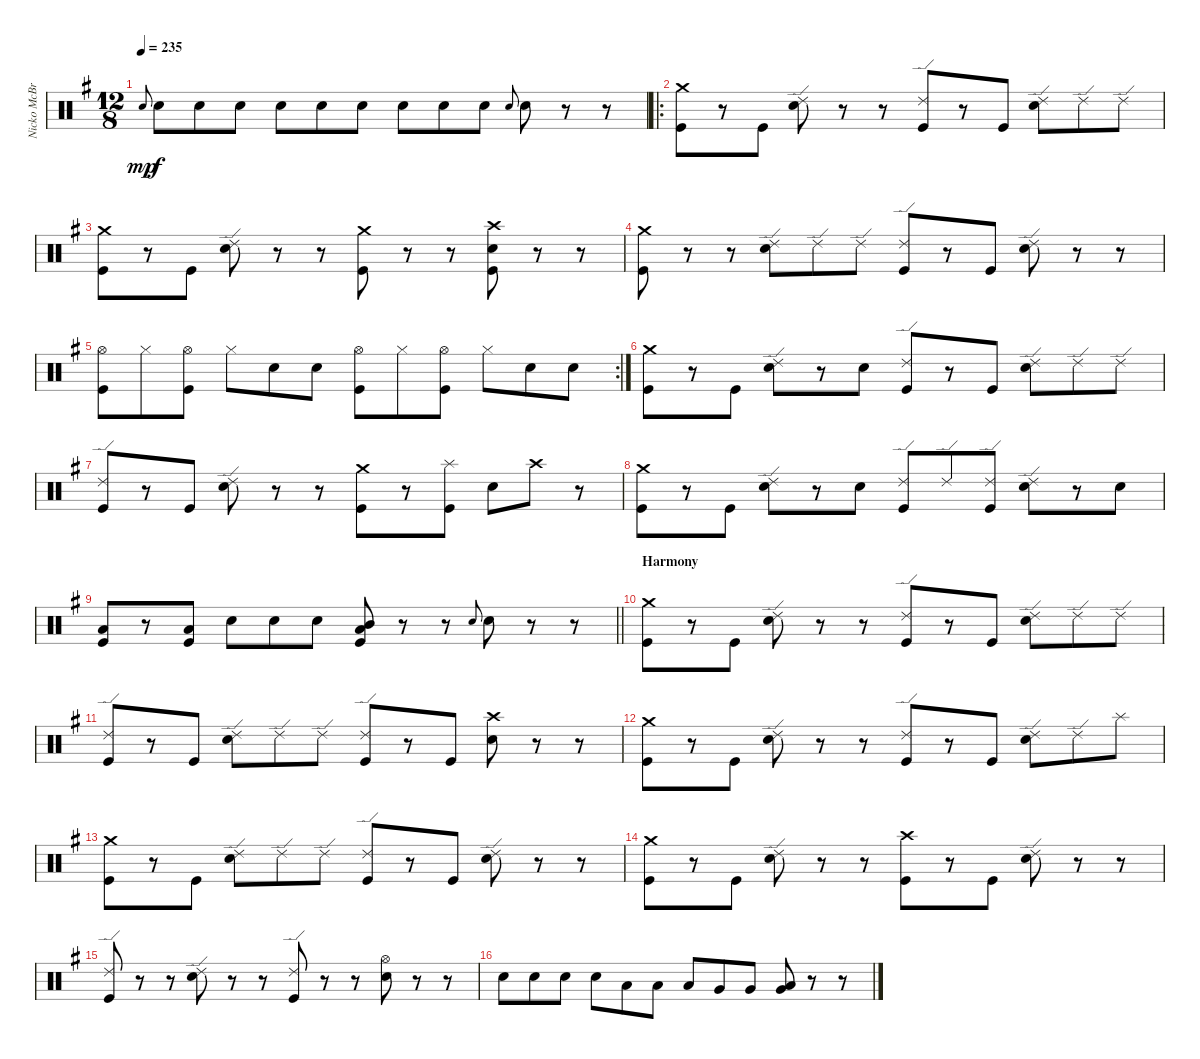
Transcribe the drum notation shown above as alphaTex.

\track ("Nicko McBrain (Drums)" "Nicko McBr") {instrument percussion}
\staff {score}
\articulation defaults
\ts (12 8)
\tempo 235
\clef neutral
\ks eminor "Snare (hit) 2".8{gr onbeat dy mp} "Snare (hit) 2".8{dy f} "Snare (hit) 2".8 "Snare (hit) 2".8 "Snare (hit) 2".8 "Snare (hit) 2".8 "Snare (hit) 2".8 "Snare (hit) 2".8 "Snare (hit) 2".8 "Snare (hit) 2".8 "Snare (hit) 2".8{gr onbeat} "Snare (hit) 2".8
r.8 r.8 |
\ro
("Crash medium (hit)" "Kick (hit)").8 r.8 "Kick (hit)".8 ("Ride (edge) 2" "Snare (hit) 2").8 r.8 r.8 ("Ride (edge) 2" "Kick (hit)").8 r.8 "Kick (hit)".8 ("Ride (edge) 2" "Snare (hit) 2").8 "Ride (edge) 2".8 "Ride (edge) 2".8 |
("Crash medium (hit)" "Kick (hit)").8 r.8 "Kick (hit)".8 ("Ride (edge) 2" "Snare (hit) 2").8 r.8 r.8 ("Crash medium (hit)" "Kick (hit)").8 r.8 r.8 ("Crash high (hit)" "Snare (hit) 2" "Kick (hit)").8 r.8 r.8 |
("Crash medium (hit)" "Kick (hit)").8 r.8 r.8 ("Ride (edge) 2" "Snare (hit) 2").8 "Ride (edge) 2".8 "Ride (edge) 2".8 ("Ride (edge) 2" "Kick (hit)").8 r.8 "Kick (hit)".8 ("Ride (edge) 2" "Snare (hit) 2").8 r.8 r.8 |
\rc 2
("Hi-Hat (open)" "Kick (hit)").8 "Hi-Hat (closed)".8 ("Hi-Hat (open)" "Kick (hit)").8 "Hi-Hat (closed)".8 "Snare (hit) 2".8 "Snare (hit) 2".8 ("Hi-Hat (open)" "Kick (hit)").8 "Hi-Hat (closed)".8 ("Hi-Hat (open)" "Kick (hit)").8 "Hi-Hat (closed)".8 "Snare (hit) 2".8 "Snare (hit) 2".8 |
("Crash medium (hit)" "Kick (hit)").8 r.8 "Kick (hit)".8 ("Ride (edge) 2" "Snare (hit) 2").8 r.8 "Snare (hit) 2".8 ("Ride (edge) 2" "Kick (hit)").8 r.8 "Kick (hit)".8 ("Ride (edge) 2" "Snare (hit) 2").8 "Ride (edge) 2".8 "Ride (edge) 2".8 |
("Ride (edge) 2" "Kick (hit)").8 r.8 "Kick (hit)".8 ("Ride (edge) 2" "Snare (hit) 2").8 r.8 r.8 ("Crash medium (hit)" "Kick (hit)").8 r.8 ("Splash (hit)" "Kick (hit)").8 "Snare (hit) 2".8 "Crash high (hit)".8 r.8 |
("Crash medium (hit)" "Kick (hit)").8 r.8 "Kick (hit)".8 ("Ride (edge) 2" "Snare (hit) 2").8 r.8 "Snare (hit) 2".8 ("Ride (edge) 2" "Kick (hit)").8 "Ride (edge) 2".8 ("Ride (edge) 2" "Kick (hit)").8 ("Ride (edge) 2" "Snare (hit) 2").8 r.8 "Snare (hit) 2".8 |
\barLineRight lightlight
("Low Tom (hit)" "Kick (hit)").8 r.8 ("Low Tom (hit)" "Kick (hit)").8 "Snare (hit) 2".8 "Snare (hit) 2".8 "Snare (hit) 2".8 ("Mid Tom (hit)" "Low Tom (hit)" "Kick (hit)").8 r.8 r.8 "Snare (hit) 2".8{gr onbeat} "Snare (hit) 2".8 r.8 r.8 |
\section ("" "Harmony")
("Crash medium (hit)" "Kick (hit)").8 r.8 "Kick (hit)".8 ("Ride (edge) 2" "Snare (hit) 2").8 r.8 r.8 ("Ride (edge) 2" "Kick (hit)").8 r.8 "Kick (hit)".8 ("Ride (edge) 2" "Snare (hit) 2").8 "Ride (edge) 2".8 "Ride (edge) 2".8 |
("Ride (edge) 2" "Kick (hit)").8 r.8 "Kick (hit)".8 ("Ride (edge) 2" "Snare (hit) 2").8 "Ride (edge) 2".8 "Ride (edge) 2".8 ("Ride (edge) 2" "Kick (hit)").8 r.8 "Kick (hit)".8 ("Crash high (hit)" "Snare (hit) 2").8 r.8 r.8 |
("Crash medium (hit)" "Kick (hit)").8 r.8 "Kick (hit)".8 ("Ride (edge) 2" "Snare (hit) 2").8 r.8 r.8 ("Ride (edge) 2" "Kick (hit)").8 r.8 "Kick (hit)".8 ("Ride (edge) 2" "Snare (hit) 2").8 "Ride (edge) 2".8 "Splash (hit)".8 |
("Crash medium (hit)" "Kick (hit)").8 r.8 "Kick (hit)".8 ("Ride (edge) 2" "Snare (hit) 2").8 "Ride (edge) 2".8 "Ride (edge) 2".8 ("Ride (edge) 2" "Kick (hit)").8 r.8 "Kick (hit)".8 ("Ride (edge) 2" "Snare (hit) 2").8 r.8 r.8 |
("Crash medium (hit)" "Kick (hit)").8 r.8 "Kick (hit)".8 ("Ride (edge) 2" "Snare (hit) 2").8 r.8 r.8 ("Crash high (hit)" "Kick (hit)").8 r.8 "Kick (hit)".8 ("Ride (edge) 2" "Snare (hit) 2").8 r.8 r.8 |
("Ride (edge) 2" "Kick (hit)").8 r.8 r.8 ("Ride (edge) 2" "Snare (hit) 2").8 r.8 r.8 ("Ride (edge) 2" "Kick (hit)").8 r.8 r.8 ("Hi-Hat (open)" "Snare (hit) 2").8 r.8 r.8 |
"Snare (hit) 2".8 "Snare (hit) 2".8 "Snare (hit) 2".8 "Snare (hit) 2".8 "Low Tom (hit)".8 "Low Tom (hit)".8 "Low Tom (hit)".8 "Very Low Tom (hit)".8 "Very Low Tom (hit)".8 ("Very Low Tom (hit)" "Low Floor Tom (hit)").8 r.8 r.8
